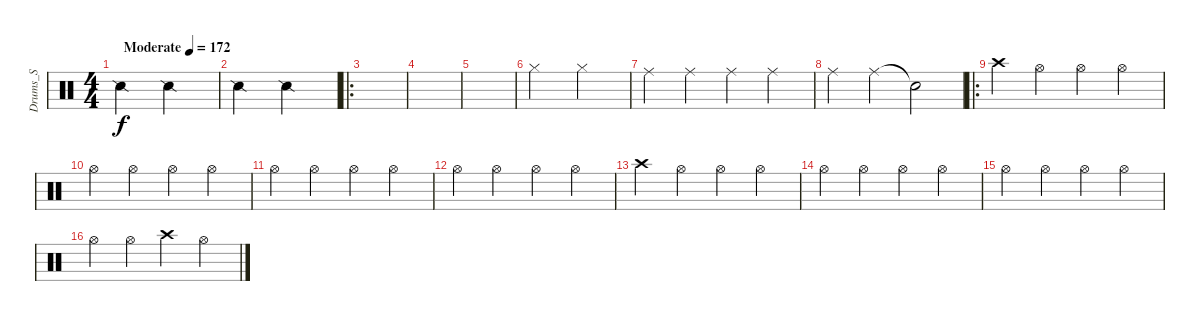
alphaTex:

\track ("Drums_S" "Drums_S") {instrument percussion}
\staff {score}
\articulation defaults
\ts (4 4)
\tempo (172 "Moderate")
\clef neutral
\ks c "Snare (side stick) 2".2{dy f} "Snare (side stick) 2".2
|
"Snare (side stick) 2".2 "Snare (side stick) 2".2 |
\ro
|
|
|
"Hi-Hat (closed)".2 "Hi-Hat (closed)".2 |
"Ride (middle)".4 "Ride (middle)".4 "Ride (middle)".4 "Ride (middle)".4 |
"Ride (middle)".4 "Ride (middle)".4 "Snare (hit)"{t}.2 |
\ro "Crash high (hit)".4 "Hi-Hat (open)".4 "Hi-Hat (open)".4 "Hi-Hat (open)".4
|
"Hi-Hat (open)".4 "Hi-Hat (open)".4 "Hi-Hat (open)".4 "Hi-Hat (open)".4 |
"Hi-Hat (open)".4 "Hi-Hat (open)".4 "Hi-Hat (open)".4 "Hi-Hat (open)".4 |
"Hi-Hat (open)".4 "Hi-Hat (open)".4 "Hi-Hat (open)".4 "Hi-Hat (open)".4 |
"Crash high (hit)".4 "Hi-Hat (open)".4 "Hi-Hat (open)".4 "Hi-Hat (open)".4 |
"Hi-Hat (open)".4 "Hi-Hat (open)".4 "Hi-Hat (open)".4 "Hi-Hat (open)".4 |
"Hi-Hat (open)".4 "Hi-Hat (open)".4 "Hi-Hat (open)".4 "Hi-Hat (open)".4 |
"Hi-Hat (open)".4 "Hi-Hat (open)".4 "Crash high (hit)".4 "Hi-Hat (open)".4
